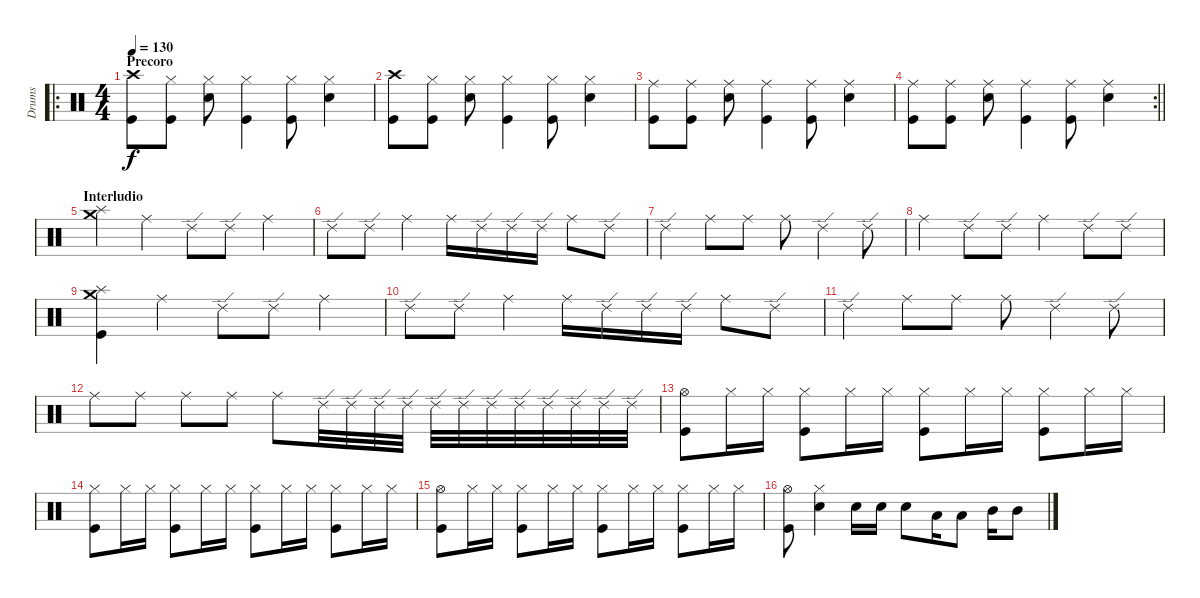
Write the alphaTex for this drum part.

\track ("Drums" "Drums") {instrument percussion}
\staff {score}
\articulation defaults
\ro
\ts (4 4)
\section ("" "Precoro")
\tempo 130
\clef neutral
\ks c
("Kick (hit)" "Crash high (hit)").8{dy f} ("Kick (hit)" "Hi-Hat (closed)").8 ("Snare (hit) 2" "Hi-Hat (closed)").8 ("Kick (hit)" "Hi-Hat (closed)").4 ("Kick (hit)" "Hi-Hat (closed)").8 ("Snare (hit) 2" "Hi-Hat (closed)").4 |
("Kick (hit)" "Crash high (hit)").8 ("Kick (hit)" "Hi-Hat (closed)").8 ("Snare (hit) 2" "Hi-Hat (closed)").8 ("Kick (hit)" "Hi-Hat (closed)").4 ("Kick (hit)" "Hi-Hat (closed)").8 ("Snare (hit) 2" "Hi-Hat (closed)").4 |
("Kick (hit)" "Ride (middle)").8 ("Kick (hit)" "Ride (middle)").8 ("Snare (hit) 2" "Ride (middle)").8 ("Kick (hit)" "Ride (middle)").4 ("Kick (hit)" "Ride (middle)").8 ("Snare (hit) 2" "Ride (middle)").4 |
\rc 2
\barLineRight lightlight
("Kick (hit)" "Ride (middle)").8 ("Kick (hit)" "Ride (middle)").8 ("Snare (hit) 2" "Ride (middle)").8 ("Kick (hit)" "Ride (middle)").4 ("Kick (hit)" "Ride (middle)").8 ("Snare (hit) 2" "Ride (middle)").4 |
\section ("" "Interludio")
("Crash medium (hit)" "Splash (hit)").4 "Ride (middle)".4 "Ride (edge) 2".8 "Ride (edge) 2".8 "Ride (middle)".4 |
"Ride (edge) 2".8 "Ride (edge) 2".8 "Ride (middle)".4 "Ride (middle)".16 "Ride (edge) 2".16 "Ride (edge) 2".16 "Ride (edge) 2".16 "Ride (middle)".8 "Ride (edge) 2".8 |
"Ride (edge) 2".4 "Ride (middle)".8 "Ride (middle)".8 "Ride (middle)".8 "Ride (edge) 2".4 "Ride (edge) 2".8 |
"Ride (middle)".4 "Ride (edge) 2".8 "Ride (edge) 2".8 "Ride (middle)".4 "Ride (edge) 2".8 "Ride (edge) 2".8 |
("Kick (hit)" "Crash medium (hit)" "Splash (hit)").4 "Ride (middle)".4 "Ride (edge) 2".8 "Ride (edge) 2".8 "Ride (middle)".4 |
"Ride (edge) 2".8 "Ride (edge) 2".8 "Ride (middle)".4 "Ride (middle)".16 "Ride (edge) 2".16 "Ride (edge) 2".16 "Ride (edge) 2".16 "Ride (middle)".8 "Ride (edge) 2".8 |
"Ride (edge) 2".4 "Ride (middle)".8 "Ride (middle)".8 "Ride (middle)".8 "Ride (edge) 2".4 "Ride (edge) 2".8 |
"Ride (middle)".8 "Ride (middle)".8 "Ride (middle)".8 "Ride (middle)".8 "Ride (middle)".8 "Ride (edge) 2".32 "Ride (edge) 2".32 "Ride (edge) 2".32 "Ride (edge) 2".32 "Ride (edge) 2".32 "Ride (edge) 2".32 "Ride (edge) 2".32 "Ride (edge) 2".32 "Ride (edge) 2".32 "Ride (edge) 2".32 "Ride (edge) 2".32 "Ride (edge) 2".32 |
("Kick (hit)" "Hi-Hat (open)").8 "Hi-Hat (closed)".16 "Hi-Hat (closed)".16 ("Kick (hit)" "Hi-Hat (closed)").8 "Hi-Hat (closed)".16 "Hi-Hat (closed)".16 ("Kick (hit)" "Hi-Hat (closed)").8 "Hi-Hat (closed)".16 "Hi-Hat (closed)".16 ("Kick (hit)" "Hi-Hat (closed)").8 "Hi-Hat (closed)".16 "Hi-Hat (closed)".16 |
("Kick (hit)" "Hi-Hat (closed)").8 "Hi-Hat (closed)".16 "Hi-Hat (closed)".16 ("Kick (hit)" "Hi-Hat (closed)").8 "Hi-Hat (closed)".16 "Hi-Hat (closed)".16 ("Kick (hit)" "Hi-Hat (closed)").8 "Hi-Hat (closed)".16 "Hi-Hat (closed)".16 ("Kick (hit)" "Hi-Hat (closed)").8 "Hi-Hat (closed)".16 "Hi-Hat (closed)".16 |
("Kick (hit)" "Hi-Hat (open)").8 "Hi-Hat (closed)".16 "Hi-Hat (closed)".16 ("Kick (hit)" "Hi-Hat (closed)").8 "Hi-Hat (closed)".16 "Hi-Hat (closed)".16 ("Kick (hit)" "Hi-Hat (closed)").8 "Hi-Hat (closed)".16 "Hi-Hat (closed)".16 ("Kick (hit)" "Hi-Hat (closed)").8 "Hi-Hat (closed)".16 "Hi-Hat (closed)".16 |
("Kick (hit)" "Hi-Hat (open)").8 ("Snare (hit) 2" "Hi-Hat (closed)").4 "Snare (hit) 2".16 "Snare (hit) 2".16 "Snare (hit) 2".8 "Low Tom (hit)".16 "Low Tom (hit)".8 "Mid Tom (hit)".16 "Mid Tom (hit)".8
